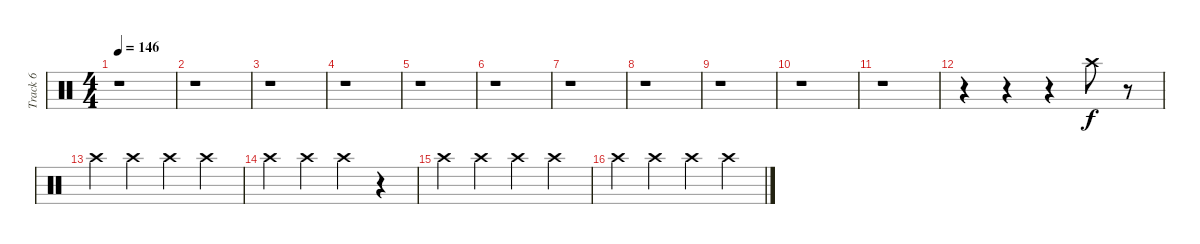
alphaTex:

\track ("Track 6" "Track 6") {instrument percussion}
\staff {score}
\articulation defaults
\ts (4 4)
\tempo 146
\clef neutral
\ks c
r.1{dy f} |
r.1 |
r.1 |
r.1 |
r.1 |
r.1 |
r.1 |
r.1 |
r.1 |
r.1 |
r.1 |
r.4 r.4 r.4 "Crash high (hit)".8 r.8 |
"Crash high (hit)".4 "Crash high (hit)".4 "Crash high (hit)".4 "Crash high (hit)".4 |
"Crash high (hit)".4 "Crash high (hit)".4 "Crash high (hit)".4 r.4 |
"Crash high (hit)".4 "Crash high (hit)".4 "Crash high (hit)".4 "Crash high (hit)".4 |
"Crash high (hit)".4 "Crash high (hit)".4 "Crash high (hit)".4 "Crash high (hit)".4
